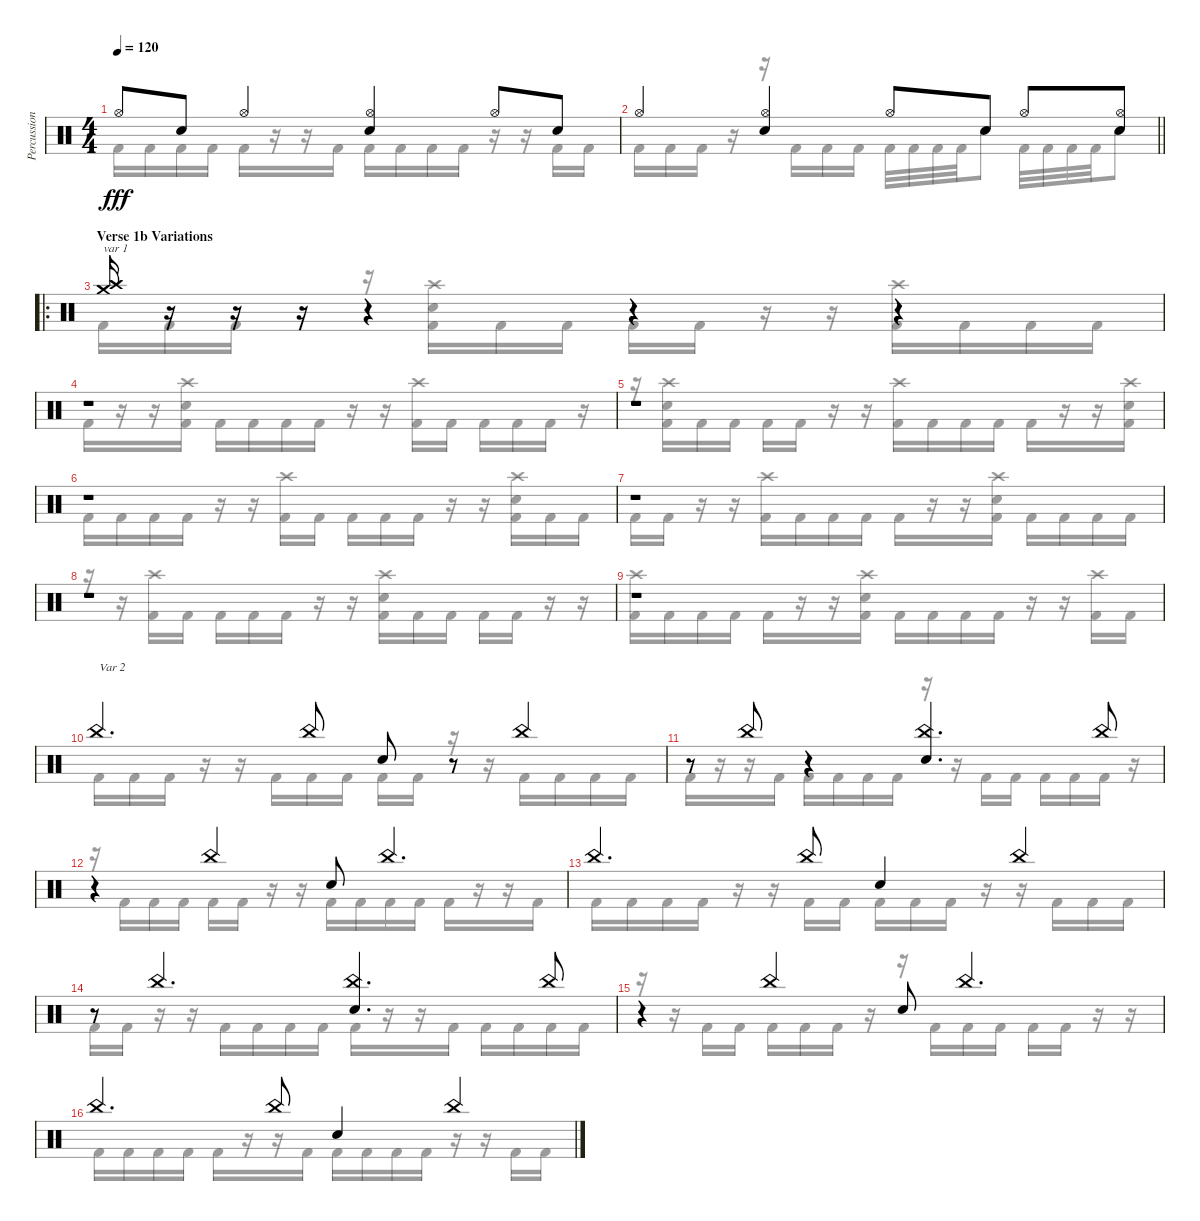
\track ("Percussion" "Percussion") {instrument percussion}
\staff {score}
\articulation defaults
\voice
\ts (4 4)
\tempo 120
\clef neutral
\ks c "Hi-Hat (open)".8{dy fff} "Electric Snare (hit)".8 "Hi-Hat (open)".4
("Hi-Hat (open)" "Electric Snare (hit)").4 "Hi-Hat (open)".8 "Electric Snare (hit)".8 |
\barLineRight lightlight "Hi-Hat (open)".4
("Hi-Hat (open)" "Electric Snare (hit)").4 "Hi-Hat (open)".8 "Electric Snare (hit)".8 "Hi-Hat (open)".8 ("Hi-Hat (open)" "Electric Snare (hit)").8 |
\ro
\section ("" "Verse 1b Variations")
("Crash high (hit)" "Crash medium (hit)").16{txt "var 1"} r.16 r.16 r.16 r.4 r.4 r.4 |
r.1 |
r.1 |
r.1 |
r.1 |
r.1 |
r.1 |
"China (hit)".4{d txt "Var 2"} "China (hit)".8 "Snare (hit) 2".8 r.8 "China (hit)".4 |
r.8 "China (hit)".8 r.4 ("China (hit)" "Snare (hit) 2").4{d} "China (hit)".8 |
r.4 "China (hit)".4 "Snare (hit) 2".8 "China (hit)".4{d} |
"China (hit)".4{d} "China (hit)".8 "Snare (hit) 2".4 "China (hit)".4 |
r.8 "China (hit)".4{d} ("China (hit)" "Snare (hit) 2").4{d} "China (hit)".8 |
r.4 "China (hit)".4 "Snare (hit) 2".8 "China (hit)".4{d} |
"China (hit)".4{d} "China (hit)".8 "Snare (hit) 2".4 "China (hit)".4
\voice
\clef neutral
\ottava regular
\simile none
\ks c "Kick (hit) 2".16{dy fff} "Kick (hit) 2".16 "Kick (hit) 2".16 "Kick (hit) 2".16 "Kick (hit) 2".16
r.16 r.16 "Kick (hit) 2".16 "Kick (hit) 2".16 "Kick (hit) 2".16 "Kick (hit) 2".16 "Kick (hit) 2".16 r.16 r.16 "Kick (hit) 2".16 "Kick (hit) 2".16 |
\barLineRight lightlight "Kick (hit) 2".16 "Kick (hit) 2".16 "Kick (hit) 2".16
r.16 r.16 "Kick (hit) 2".16 "Kick (hit) 2".16 "Kick (hit) 2".16 "Kick (hit) 2".32 "Kick (hit) 2".32 "Kick (hit) 2".32 "Kick (hit) 2".32 "Electric Snare (hit)".8 "Kick (hit) 2".32 "Kick (hit) 2".32 "Kick (hit) 2".32 "Kick (hit) 2".32 "Electric Snare (hit)".8 |
"Kick (hit) 2".16 "Kick (hit) 2".16 "Kick (hit) 2".16 r.16 r.16 ("Crash high (hit)" "Snare (hit) 2" "Kick (hit) 2").16 "Kick (hit) 2".16 "Kick (hit) 2".16 "Kick (hit) 2".16 "Kick (hit) 2".16 r.16 r.16 ("Crash high (hit)" "Kick (hit) 2").16 "Kick (hit) 2".16 "Kick (hit) 2".16 "Kick (hit) 2".16 |
"Kick (hit) 2".16 r.16 r.16 ("Crash high (hit)" "Snare (hit) 2" "Kick (hit) 2").16 "Kick (hit) 2".16 "Kick (hit) 2".16 "Kick (hit) 2".16 "Kick (hit) 2".16 r.16 r.16 ("Crash high (hit)" "Kick (hit) 2").16 "Kick (hit) 2".16 "Kick (hit) 2".16 "Kick (hit) 2".16 "Kick (hit) 2".16 r.16 |
r.16 ("Crash high (hit)" "Snare (hit) 2" "Kick (hit) 2").16 "Kick (hit) 2".16 "Kick (hit) 2".16 "Kick (hit) 2".16 "Kick (hit) 2".16 r.16 r.16 ("Crash high (hit)" "Kick (hit) 2").16 "Kick (hit) 2".16 "Kick (hit) 2".16 "Kick (hit) 2".16 "Kick (hit) 2".16 r.16 r.16 ("Crash high (hit)" "Snare (hit) 2" "Kick (hit) 2").16 |
"Kick (hit) 2".16 "Kick (hit) 2".16 "Kick (hit) 2".16 "Kick (hit) 2".16 r.16 r.16 ("Crash high (hit)" "Kick (hit) 2").16 "Kick (hit) 2".16 "Kick (hit) 2".16 "Kick (hit) 2".16 "Kick (hit) 2".16 r.16 r.16 ("Crash high (hit)" "Snare (hit) 2" "Kick (hit) 2").16 "Kick (hit) 2".16 "Kick (hit) 2".16 |
"Kick (hit) 2".16 "Kick (hit) 2".16 r.16 r.16 ("Crash high (hit)" "Kick (hit) 2").16 "Kick (hit) 2".16 "Kick (hit) 2".16 "Kick (hit) 2".16 "Kick (hit) 2".16 r.16 r.16 ("Crash high (hit)" "Snare (hit) 2" "Kick (hit) 2").16 "Kick (hit) 2".16 "Kick (hit) 2".16 "Kick (hit) 2".16 "Kick (hit) 2".16 |
r.16 r.16 ("Crash high (hit)" "Kick (hit) 2").16 "Kick (hit) 2".16 "Kick (hit) 2".16 "Kick (hit) 2".16 "Kick (hit) 2".16 r.16 r.16 ("Crash high (hit)" "Snare (hit) 2" "Kick (hit) 2").16 "Kick (hit) 2".16 "Kick (hit) 2".16 "Kick (hit) 2".16 "Kick (hit) 2".16 r.16 r.16 |
("Crash high (hit)" "Kick (hit) 2").16 "Kick (hit) 2".16 "Kick (hit) 2".16 "Kick (hit) 2".16 "Kick (hit) 2".16 r.16 r.16 ("Crash high (hit)" "Snare (hit) 2" "Kick (hit) 2").16 "Kick (hit) 2".16 "Kick (hit) 2".16 "Kick (hit) 2".16 "Kick (hit) 2".16 r.16 r.16 ("Crash high (hit)" "Kick (hit) 2").16 "Kick (hit) 2".16 |
"Kick (hit) 2".16 "Kick (hit) 2".16 "Kick (hit) 2".16 r.16 r.16 "Kick (hit) 2".16 "Kick (hit) 2".16 "Kick (hit) 2".16 "Kick (hit) 2".16 "Kick (hit) 2".16 r.16 r.16 "Kick (hit) 2".16 "Kick (hit) 2".16 "Kick (hit) 2".16 "Kick (hit) 2".16 |
"Kick (hit) 2".16 r.16 r.16 "Kick (hit) 2".16 "Kick (hit) 2".16 "Kick (hit) 2".16 "Kick (hit) 2".16 "Kick (hit) 2".16 r.16 r.16 "Kick (hit) 2".16 "Kick (hit) 2".16 "Kick (hit) 2".16 "Kick (hit) 2".16 "Kick (hit) 2".16 r.16 |
r.16 "Kick (hit) 2".16 "Kick (hit) 2".16 "Kick (hit) 2".16 "Kick (hit) 2".16 "Kick (hit) 2".16 r.16 r.16 "Kick (hit) 2".16 "Kick (hit) 2".16 "Kick (hit) 2".16 "Kick (hit) 2".16 "Kick (hit) 2".16 r.16 r.16 "Kick (hit) 2".16 |
"Kick (hit) 2".16 "Kick (hit) 2".16 "Kick (hit) 2".16 "Kick (hit) 2".16 r.16 r.16 "Kick (hit) 2".16 "Kick (hit) 2".16 "Kick (hit) 2".16 "Kick (hit) 2".16 "Kick (hit) 2".16 r.16 r.16 "Kick (hit) 2".16 "Kick (hit) 2".16 "Kick (hit) 2".16 |
"Kick (hit) 2".16 "Kick (hit) 2".16 r.16 r.16 "Kick (hit) 2".16 "Kick (hit) 2".16 "Kick (hit) 2".16 "Kick (hit) 2".16 "Kick (hit) 2".16 r.16 r.16 "Kick (hit) 2".16 "Kick (hit) 2".16 "Kick (hit) 2".16 "Kick (hit) 2".16 "Kick (hit) 2".16 |
r.16 r.16 "Kick (hit) 2".16 "Kick (hit) 2".16 "Kick (hit) 2".16 "Kick (hit) 2".16 "Kick (hit) 2".16 r.16 r.16 "Kick (hit) 2".16 "Kick (hit) 2".16 "Kick (hit) 2".16 "Kick (hit) 2".16 "Kick (hit) 2".16 r.16 r.16 |
"Kick (hit) 2".16 "Kick (hit) 2".16 "Kick (hit) 2".16 "Kick (hit) 2".16 "Kick (hit) 2".16 r.16 r.16 "Kick (hit) 2".16 "Kick (hit) 2".16 "Kick (hit) 2".16 "Kick (hit) 2".16 "Kick (hit) 2".16 r.16 r.16 "Kick (hit) 2".16 "Kick (hit) 2".16
